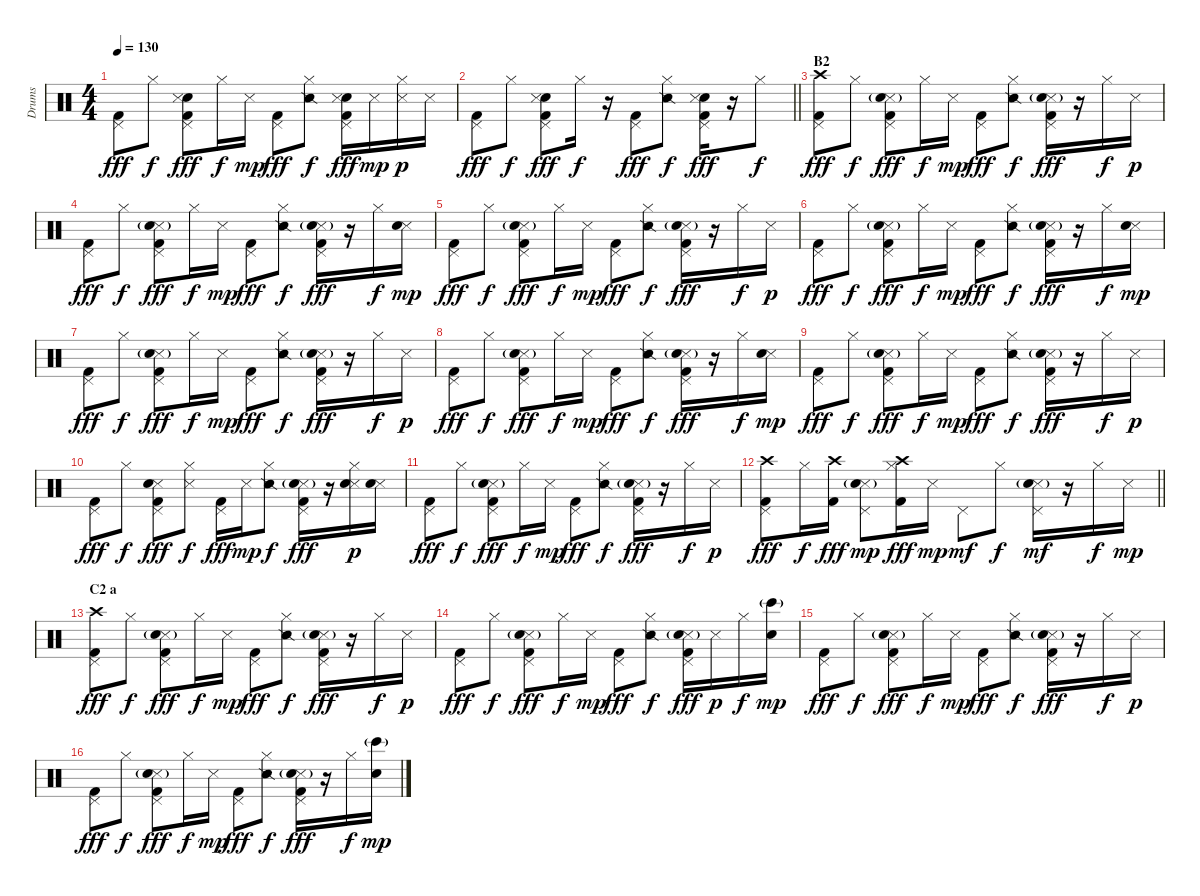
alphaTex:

\track ("Drums" "Drums") {instrument percussion}
\staff {score}
\articulation defaults
\ts (4 4)
\tempo 130
\clef neutral
\ks c
("Pedal Hi-Hat (hit)" "Kick (hit) 2").8{dy fff} "Hi-Hat (closed)".8{dy f} ("Pedal Hi-Hat (hit)" "Electric Snare (hit)" "Snare (side stick) 3" "Kick (hit) 2").8{dy fff} "Hi-Hat (closed)".16{dy f} "Snare (side stick) 3".16{dy mp} ("Pedal Hi-Hat (hit)" "Kick (hit) 2").8{dy fff} ("Hi-Hat (closed)" "Snare (side stick) 2").8{dy f} ("Pedal Hi-Hat (hit)" "Electric Snare (hit)" "Snare (side stick) 3" "Kick (hit) 2").16{dy fff} "Snare (side stick) 3".16{dy mp} ("Hi-Hat (closed)" "Snare (side stick) 3").16{dy p} "Snare (side stick) 3".16 |
\barLineRight lightlight
("Pedal Hi-Hat (hit)" "Kick (hit) 2").8{dy fff} "Hi-Hat (closed)".8{dy f} ("Pedal Hi-Hat (hit)" "Electric Snare (hit)" "Snare (side stick) 3" "Kick (hit) 2").8{dy fff} "Hi-Hat (closed)".16{dy f} r.16 ("Pedal Hi-Hat (hit)" "Kick (hit) 2").8{dy fff} ("Hi-Hat (closed)" "Snare (side stick) 2").8{dy f} ("Pedal Hi-Hat (hit)" "Electric Snare (hit)" "Snare (side stick) 3" "Kick (hit) 2").16{dy fff} r.16 "Hi-Hat (closed)".8{dy f} |
\section ("" "B2")
("Crash high (hit)" "Pedal Hi-Hat (hit)" "Kick (hit) 2").8{dy fff} "Hi-Hat (closed)".8{dy f} ("Pedal Hi-Hat (hit)" "Snare (side stick) 3"{g} "Electric Snare (hit)" "Kick (hit) 2").8{dy fff} "Hi-Hat (closed)".16{dy f} "Snare (side stick) 3".16{dy mp} ("Pedal Hi-Hat (hit)" "Kick (hit) 2").8{dy fff} ("Hi-Hat (closed)" "Snare (side stick) 2").8{dy f} ("Pedal Hi-Hat (hit)" "Snare (side stick) 3"{g} "Electric Snare (hit)" "Kick (hit) 2").16{dy fff} r.16 "Hi-Hat (closed)".16{dy f} "Snare (side stick) 3".16{dy p} |
("Pedal Hi-Hat (hit)" "Kick (hit) 2").8{dy fff} "Hi-Hat (closed)".8{dy f} ("Pedal Hi-Hat (hit)" "Snare (side stick) 3"{g} "Electric Snare (hit)" "Kick (hit) 2").8{dy fff} "Hi-Hat (closed)".16{dy f} "Snare (side stick) 3".16{dy mp} ("Pedal Hi-Hat (hit)" "Kick (hit) 2").8{dy fff} ("Hi-Hat (closed)" "Snare (side stick) 2").8{dy f} ("Pedal Hi-Hat (hit)" "Snare (side stick) 3"{g} "Electric Snare (hit)" "Kick (hit) 2").16{dy fff} r.16 "Hi-Hat (closed)".16{dy f} ("Snare (side stick) 3" "Electric Snare (hit)").16{dy mp} |
("Pedal Hi-Hat (hit)" "Kick (hit) 2").8{dy fff} "Hi-Hat (closed)".8{dy f} ("Pedal Hi-Hat (hit)" "Snare (side stick) 3"{g} "Electric Snare (hit)" "Kick (hit) 2").8{dy fff} "Hi-Hat (closed)".16{dy f} "Snare (side stick) 3".16{dy mp} ("Pedal Hi-Hat (hit)" "Kick (hit) 2").8{dy fff} ("Hi-Hat (closed)" "Snare (side stick) 2").8{dy f} ("Pedal Hi-Hat (hit)" "Snare (side stick) 3"{g} "Electric Snare (hit)" "Kick (hit) 2").16{dy fff} r.16 "Hi-Hat (closed)".16{dy f} "Snare (side stick) 3".16{dy p} |
("Pedal Hi-Hat (hit)" "Kick (hit) 2").8{dy fff} "Hi-Hat (closed)".8{dy f} ("Pedal Hi-Hat (hit)" "Snare (side stick) 3"{g} "Electric Snare (hit)" "Kick (hit) 2").8{dy fff} "Hi-Hat (closed)".16{dy f} "Snare (side stick) 3".16{dy mp} ("Pedal Hi-Hat (hit)" "Kick (hit) 2").8{dy fff} ("Hi-Hat (closed)" "Snare (side stick) 2").8{dy f} ("Pedal Hi-Hat (hit)" "Snare (side stick) 3"{g} "Electric Snare (hit)" "Kick (hit) 2").16{dy fff} r.16 "Hi-Hat (closed)".16{dy f} ("Snare (side stick) 3" "Electric Snare (hit)").16{dy mp} |
("Pedal Hi-Hat (hit)" "Kick (hit) 2").8{dy fff} "Hi-Hat (closed)".8{dy f} ("Pedal Hi-Hat (hit)" "Snare (side stick) 3"{g} "Electric Snare (hit)" "Kick (hit) 2").8{dy fff} "Hi-Hat (closed)".16{dy f} "Snare (side stick) 3".16{dy mp} ("Pedal Hi-Hat (hit)" "Kick (hit) 2").8{dy fff} ("Hi-Hat (closed)" "Snare (side stick) 2").8{dy f} ("Pedal Hi-Hat (hit)" "Snare (side stick) 3"{g} "Electric Snare (hit)" "Kick (hit) 2").16{dy fff} r.16 "Hi-Hat (closed)".16{dy f} "Snare (side stick) 3".16{dy p} |
("Pedal Hi-Hat (hit)" "Kick (hit) 2").8{dy fff} "Hi-Hat (closed)".8{dy f} ("Pedal Hi-Hat (hit)" "Snare (side stick) 3"{g} "Electric Snare (hit)" "Kick (hit) 2").8{dy fff} "Hi-Hat (closed)".16{dy f} "Snare (side stick) 3".16{dy mp} ("Pedal Hi-Hat (hit)" "Kick (hit) 2").8{dy fff} ("Hi-Hat (closed)" "Snare (side stick) 2").8{dy f} ("Pedal Hi-Hat (hit)" "Snare (side stick) 3"{g} "Electric Snare (hit)" "Kick (hit) 2").16{dy fff} r.16 "Hi-Hat (closed)".16{dy f} ("Snare (side stick) 3" "Electric Snare (hit)").16{dy mp} |
("Pedal Hi-Hat (hit)" "Kick (hit) 2").8{dy fff} "Hi-Hat (closed)".8{dy f} ("Pedal Hi-Hat (hit)" "Snare (side stick) 3"{g} "Electric Snare (hit)" "Kick (hit) 2").8{dy fff} "Hi-Hat (closed)".16{dy f} "Snare (side stick) 3".16{dy mp} ("Pedal Hi-Hat (hit)" "Kick (hit) 2").8{dy fff} ("Hi-Hat (closed)" "Snare (side stick) 2").8{dy f} ("Pedal Hi-Hat (hit)" "Snare (side stick) 3"{g} "Electric Snare (hit)" "Kick (hit) 2").16{dy fff} r.16 "Hi-Hat (closed)".16{dy f} "Snare (side stick) 3".16{dy p} |
("Pedal Hi-Hat (hit)" "Kick (hit) 2").8{dy fff} "Hi-Hat (closed)".8{dy f} ("Pedal Hi-Hat (hit)" "Snare (side stick) 3" "Electric Snare (hit)" "Kick (hit) 2").8{dy fff} ("Hi-Hat (closed)" "Snare (side stick) 3").8{dy f} ("Pedal Hi-Hat (hit)" "Kick (hit) 2").16{dy fff} "Snare (side stick) 3".16{dy mp} ("Hi-Hat (closed)" "Snare (side stick) 2").8{dy f} ("Pedal Hi-Hat (hit)" "Snare (side stick) 3"{g} "Electric Snare (hit)" "Kick (hit) 2").16{dy fff} r.16 ("Hi-Hat (closed)" "Snare (side stick) 3" "Electric Snare (hit)").16{dy p} ("Snare (side stick) 3" "Electric Snare (hit)").16 |
("Pedal Hi-Hat (hit)" "Kick (hit) 2").8{dy fff} "Hi-Hat (closed)".8{dy f} ("Pedal Hi-Hat (hit)" "Snare (side stick) 3"{g} "Electric Snare (hit)" "Kick (hit) 2").8{dy fff} "Hi-Hat (closed)".16{dy f} "Snare (side stick) 3".16{dy mp} ("Pedal Hi-Hat (hit)" "Kick (hit) 2").8{dy fff} ("Hi-Hat (closed)" "Snare (side stick) 2").8{dy f} ("Pedal Hi-Hat (hit)" "Snare (side stick) 3"{g} "Electric Snare (hit)" "Kick (hit) 2").16{dy fff} r.16 "Hi-Hat (closed)".16{dy f} "Snare (side stick) 3".16{dy p} |
\barLineRight lightlight
("Crash high (hit)" "Pedal Hi-Hat (hit)" "Kick (hit) 2").8{dy fff} "Hi-Hat (closed)".16{dy f} ("Crash high (hit)" "Kick (hit) 2").16{dy fff} ("Pedal Hi-Hat (hit)" "Snare (side stick) 3"{g} "Electric Snare (hit)"{g}).8{dy mp} ("Crash high (hit)" "Hi-Hat (closed)" "Kick (hit) 2").16{dy fff} "Snare (side stick) 3".16{dy mp} "Pedal Hi-Hat (hit)".8{dy mf} "Hi-Hat (closed)".8{dy f} ("Pedal Hi-Hat (hit)" "Snare (side stick) 3"{g} "Electric Snare (hit)"{g}).16{dy mf} r.16 "Hi-Hat (closed)".16{dy f} "Snare (side stick) 3".16{dy mp} |
\section ("" "C2 a")
("Crash high (hit)" "Pedal Hi-Hat (hit)" "Kick (hit) 2").8{dy fff} "Hi-Hat (closed)".8{dy f} ("Pedal Hi-Hat (hit)" "Snare (side stick) 3"{g} "Electric Snare (hit)" "Kick (hit) 2").8{dy fff} "Hi-Hat (closed)".16{dy f} "Snare (side stick) 3".16{dy mp} ("Pedal Hi-Hat (hit)" "Kick (hit) 2").8{dy fff} ("Hi-Hat (closed)" "Snare (side stick) 2").8{dy f} ("Pedal Hi-Hat (hit)" "Snare (side stick) 3"{g} "Electric Snare (hit)" "Kick (hit) 2").16{dy fff} r.16 "Hi-Hat (closed)".16{dy f} "Snare (side stick) 3".16{dy p} |
("Pedal Hi-Hat (hit)" "Kick (hit) 2").8{dy fff} "Hi-Hat (closed)".8{dy f} ("Pedal Hi-Hat (hit)" "Snare (side stick) 3"{g} "Electric Snare (hit)" "Kick (hit) 2").8{dy fff} "Hi-Hat (closed)".16{dy f} "Snare (side stick) 3".16{dy mp} ("Pedal Hi-Hat (hit)" "Kick (hit) 2").8{dy fff} ("Hi-Hat (closed)" "Snare (side stick) 2").8{dy f} ("Pedal Hi-Hat (hit)" "Snare (side stick) 3"{g} "Electric Snare (hit)" "Kick (hit) 2").16{dy fff} "Snare (side stick) 3".16{dy p} "Hi-Hat (closed)".16{dy f} ("Bongo High (hit)"{g} "Electric Snare (hit)").16{dy mp} |
("Pedal Hi-Hat (hit)" "Kick (hit) 2").8{dy fff} "Hi-Hat (closed)".8{dy f} ("Pedal Hi-Hat (hit)" "Snare (side stick) 3"{g} "Electric Snare (hit)" "Kick (hit) 2").8{dy fff} "Hi-Hat (closed)".16{dy f} "Snare (side stick) 3".16{dy mp} ("Pedal Hi-Hat (hit)" "Kick (hit) 2").8{dy fff} ("Hi-Hat (closed)" "Snare (side stick) 2").8{dy f} ("Pedal Hi-Hat (hit)" "Snare (side stick) 3"{g} "Electric Snare (hit)" "Kick (hit) 2").16{dy fff} r.16 "Hi-Hat (closed)".16{dy f} "Snare (side stick) 3".16{dy p} |
("Pedal Hi-Hat (hit)" "Kick (hit) 2").8{dy fff} "Hi-Hat (closed)".8{dy f} ("Pedal Hi-Hat (hit)" "Snare (side stick) 3"{g} "Electric Snare (hit)" "Kick (hit) 2").8{dy fff} "Hi-Hat (closed)".16{dy f} "Snare (side stick) 3".16{dy mp} ("Pedal Hi-Hat (hit)" "Kick (hit) 2").8{dy fff} ("Hi-Hat (closed)" "Snare (side stick) 2").8{dy f} ("Pedal Hi-Hat (hit)" "Snare (side stick) 3"{g} "Electric Snare (hit)" "Kick (hit) 2").16{dy fff} r.16 "Hi-Hat (closed)".16{dy f} ("Bongo High (hit)"{g} "Electric Snare (hit)").16{dy mp}
